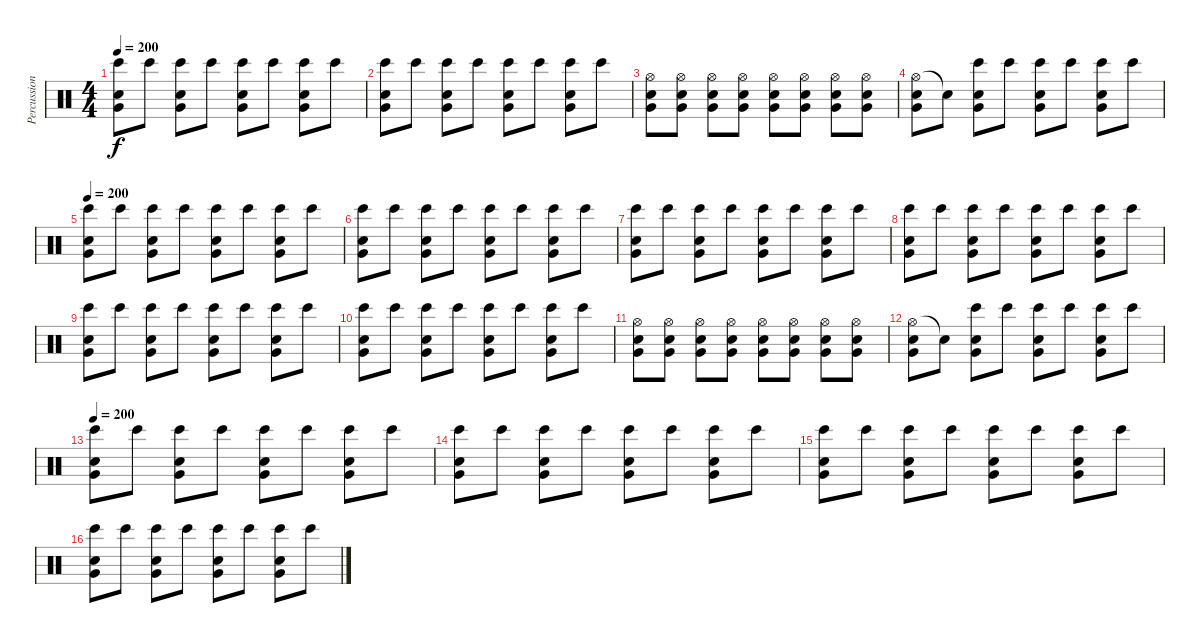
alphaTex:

\track ("Percussion" "Percussion") {instrument percussion}
\staff {score}
\articulation defaults
\ts (4 4)
\tempo 200
\clef neutral
\ks c
("Very Low Tom (hit)" "Bongo High (hit)" "Snare (hit) 2").8{dy f} "Bongo High (hit)".8 ("Very Low Tom (hit)" "Bongo High (hit)" "Snare (hit) 2").8 "Bongo High (hit)".8 ("Very Low Tom (hit)" "Bongo High (hit)" "Snare (hit) 2").8 "Bongo High (hit)".8 ("Very Low Tom (hit)" "Bongo High (hit)" "Snare (hit) 2").8 "Bongo High (hit)".8 |
("Very Low Tom (hit)" "Bongo High (hit)" "Snare (hit) 2").8 "Bongo High (hit)".8 ("Very Low Tom (hit)" "Bongo High (hit)" "Snare (hit) 2").8 "Bongo High (hit)".8 ("Very Low Tom (hit)" "Bongo High (hit)" "Snare (hit) 2").8 "Bongo High (hit)".8 ("Very Low Tom (hit)" "Bongo High (hit)" "Snare (hit) 2").8 "Bongo High (hit)".8 |
("Hi-Hat (open)" "Very Low Tom (hit)" "Snare (hit) 2").8 ("Hi-Hat (open)" "Very Low Tom (hit)" "Snare (hit) 2").8 ("Hi-Hat (open)" "Very Low Tom (hit)" "Snare (hit) 2").8 ("Hi-Hat (open)" "Very Low Tom (hit)" "Snare (hit) 2").8 ("Hi-Hat (open)" "Very Low Tom (hit)" "Snare (hit) 2").8 ("Hi-Hat (open)" "Very Low Tom (hit)" "Snare (hit) 2").8 ("Hi-Hat (open)" "Very Low Tom (hit)" "Snare (hit) 2").8 ("Hi-Hat (open)" "Very Low Tom (hit)" "Snare (hit) 2").8 |
("Hi-Hat (open)" "Very Low Tom (hit)" "Snare (hit) 2").8 "Snare (hit)"{t}.8 ("Very Low Tom (hit)" "Bongo High (hit)" "Snare (hit) 2").8 "Bongo High (hit)".8 ("Very Low Tom (hit)" "Bongo High (hit)" "Snare (hit) 2").8 "Bongo High (hit)".8 ("Very Low Tom (hit)" "Bongo High (hit)" "Snare (hit) 2").8 "Bongo High (hit)".8 |
\tempo 200
("Very Low Tom (hit)" "Bongo High (hit)" "Snare (hit) 2").8 "Bongo High (hit)".8 ("Very Low Tom (hit)" "Bongo High (hit)" "Snare (hit) 2").8 "Bongo High (hit)".8 ("Very Low Tom (hit)" "Bongo High (hit)" "Snare (hit) 2").8 "Bongo High (hit)".8 ("Very Low Tom (hit)" "Bongo High (hit)" "Snare (hit) 2").8 "Bongo High (hit)".8 |
("Very Low Tom (hit)" "Bongo High (hit)" "Snare (hit) 2").8 "Bongo High (hit)".8 ("Very Low Tom (hit)" "Bongo High (hit)" "Snare (hit) 2").8 "Bongo High (hit)".8 ("Very Low Tom (hit)" "Bongo High (hit)" "Snare (hit) 2").8 "Bongo High (hit)".8 ("Very Low Tom (hit)" "Bongo High (hit)" "Snare (hit) 2").8 "Bongo High (hit)".8 |
("Very Low Tom (hit)" "Bongo High (hit)" "Snare (hit) 2").8 "Bongo High (hit)".8 ("Very Low Tom (hit)" "Bongo High (hit)" "Snare (hit) 2").8 "Bongo High (hit)".8 ("Very Low Tom (hit)" "Bongo High (hit)" "Snare (hit) 2").8 "Bongo High (hit)".8 ("Very Low Tom (hit)" "Bongo High (hit)" "Snare (hit) 2").8 "Bongo High (hit)".8 |
("Very Low Tom (hit)" "Bongo High (hit)" "Snare (hit) 2").8 "Bongo High (hit)".8 ("Very Low Tom (hit)" "Bongo High (hit)" "Snare (hit) 2").8 "Bongo High (hit)".8 ("Very Low Tom (hit)" "Bongo High (hit)" "Snare (hit) 2").8 "Bongo High (hit)".8 ("Very Low Tom (hit)" "Bongo High (hit)" "Snare (hit) 2").8 "Bongo High (hit)".8 |
("Very Low Tom (hit)" "Bongo High (hit)" "Snare (hit) 2").8 "Bongo High (hit)".8 ("Very Low Tom (hit)" "Bongo High (hit)" "Snare (hit) 2").8 "Bongo High (hit)".8 ("Very Low Tom (hit)" "Bongo High (hit)" "Snare (hit) 2").8 "Bongo High (hit)".8 ("Very Low Tom (hit)" "Bongo High (hit)" "Snare (hit) 2").8 "Bongo High (hit)".8 |
("Very Low Tom (hit)" "Bongo High (hit)" "Snare (hit) 2").8 "Bongo High (hit)".8 ("Very Low Tom (hit)" "Bongo High (hit)" "Snare (hit) 2").8 "Bongo High (hit)".8 ("Very Low Tom (hit)" "Bongo High (hit)" "Snare (hit) 2").8 "Bongo High (hit)".8 ("Very Low Tom (hit)" "Bongo High (hit)" "Snare (hit) 2").8 "Bongo High (hit)".8 |
("Hi-Hat (open)" "Very Low Tom (hit)" "Snare (hit) 2").8 ("Hi-Hat (open)" "Very Low Tom (hit)" "Snare (hit) 2").8 ("Hi-Hat (open)" "Very Low Tom (hit)" "Snare (hit) 2").8 ("Hi-Hat (open)" "Very Low Tom (hit)" "Snare (hit) 2").8 ("Hi-Hat (open)" "Very Low Tom (hit)" "Snare (hit) 2").8 ("Hi-Hat (open)" "Very Low Tom (hit)" "Snare (hit) 2").8 ("Hi-Hat (open)" "Very Low Tom (hit)" "Snare (hit) 2").8 ("Hi-Hat (open)" "Very Low Tom (hit)" "Snare (hit) 2").8 |
("Hi-Hat (open)" "Very Low Tom (hit)" "Snare (hit) 2").8 "Snare (hit)"{t}.8 ("Very Low Tom (hit)" "Bongo High (hit)" "Snare (hit) 2").8 "Bongo High (hit)".8 ("Very Low Tom (hit)" "Bongo High (hit)" "Snare (hit) 2").8 "Bongo High (hit)".8 ("Very Low Tom (hit)" "Bongo High (hit)" "Snare (hit) 2").8 "Bongo High (hit)".8 |
\tempo 200
("Very Low Tom (hit)" "Bongo High (hit)" "Snare (hit) 2").8 "Bongo High (hit)".8 ("Very Low Tom (hit)" "Bongo High (hit)" "Snare (hit) 2").8 "Bongo High (hit)".8 ("Very Low Tom (hit)" "Bongo High (hit)" "Snare (hit) 2").8 "Bongo High (hit)".8 ("Very Low Tom (hit)" "Bongo High (hit)" "Snare (hit) 2").8 "Bongo High (hit)".8 |
("Very Low Tom (hit)" "Bongo High (hit)" "Snare (hit) 2").8 "Bongo High (hit)".8 ("Very Low Tom (hit)" "Bongo High (hit)" "Snare (hit) 2").8 "Bongo High (hit)".8 ("Very Low Tom (hit)" "Bongo High (hit)" "Snare (hit) 2").8 "Bongo High (hit)".8 ("Very Low Tom (hit)" "Bongo High (hit)" "Snare (hit) 2").8 "Bongo High (hit)".8 |
("Very Low Tom (hit)" "Bongo High (hit)" "Snare (hit) 2").8 "Bongo High (hit)".8 ("Very Low Tom (hit)" "Bongo High (hit)" "Snare (hit) 2").8 "Bongo High (hit)".8 ("Very Low Tom (hit)" "Bongo High (hit)" "Snare (hit) 2").8 "Bongo High (hit)".8 ("Very Low Tom (hit)" "Bongo High (hit)" "Snare (hit) 2").8 "Bongo High (hit)".8 |
("Very Low Tom (hit)" "Bongo High (hit)" "Snare (hit) 2").8 "Bongo High (hit)".8 ("Very Low Tom (hit)" "Bongo High (hit)" "Snare (hit) 2").8 "Bongo High (hit)".8 ("Very Low Tom (hit)" "Bongo High (hit)" "Snare (hit) 2").8 "Bongo High (hit)".8 ("Very Low Tom (hit)" "Bongo High (hit)" "Snare (hit) 2").8 "Bongo High (hit)".8
